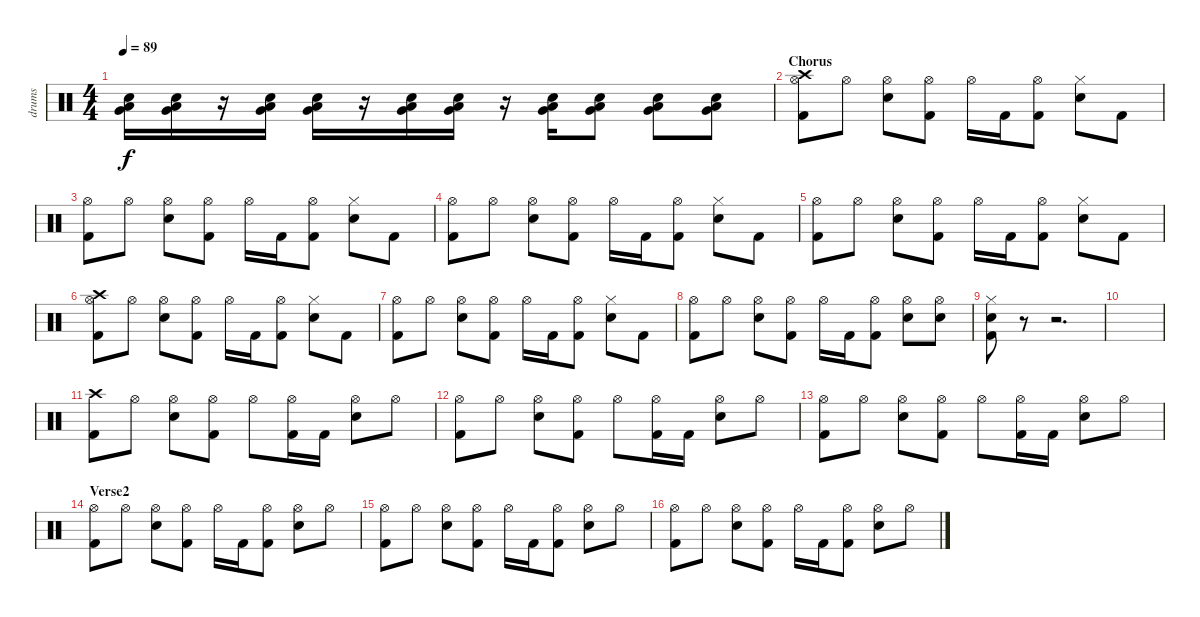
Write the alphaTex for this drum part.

\track ("drums" "drums") {instrument percussion}
\staff {score}
\articulation defaults
\ts (4 4)
\tempo 89
\clef neutral
\ks c
("Low Tom (hit)" "Very Low Tom (hit)" "Electric Snare (hit)").16{dy f} ("Low Tom (hit)" "Very Low Tom (hit)" "Electric Snare (hit)").16 r.16 ("Low Tom (hit)" "Very Low Tom (hit)" "Electric Snare (hit)").16 ("Low Tom (hit)" "Very Low Tom (hit)" "Electric Snare (hit)").16 r.16 ("Low Tom (hit)" "Very Low Tom (hit)" "Electric Snare (hit)").16 ("Low Tom (hit)" "Very Low Tom (hit)" "Electric Snare (hit)").16 r.16 ("Low Tom (hit)" "Very Low Tom (hit)" "Electric Snare (hit)").16 ("Low Tom (hit)" "Very Low Tom (hit)" "Electric Snare (hit)").8 ("Low Tom (hit)" "Very Low Tom (hit)" "Electric Snare (hit)").8 ("Low Tom (hit)" "Very Low Tom (hit)" "Electric Snare (hit)").8 |
\section ("" "Chorus")
("Crash high (hit)" "Hi-Hat (open)" "Kick (hit) 2").8 "Hi-Hat (open)".8 ("Hi-Hat (open)" "Electric Snare (hit)").8 ("Hi-Hat (open)" "Kick (hit) 2").8 "Hi-Hat (open)".16 "Kick (hit) 2".16 ("Hi-Hat (open)" "Kick (hit) 2").8 ("Hi-Hat (closed)" "Electric Snare (hit)").8 "Kick (hit) 2".8 |
("Hi-Hat (open)" "Kick (hit) 2").8 "Hi-Hat (open)".8 ("Hi-Hat (open)" "Electric Snare (hit)").8 ("Hi-Hat (open)" "Kick (hit) 2").8 "Hi-Hat (open)".16 "Kick (hit) 2".16 ("Hi-Hat (open)" "Kick (hit) 2").8 ("Hi-Hat (closed)" "Electric Snare (hit)").8 "Kick (hit) 2".8 |
("Hi-Hat (open)" "Kick (hit) 2").8 "Hi-Hat (open)".8 ("Hi-Hat (open)" "Electric Snare (hit)").8 ("Hi-Hat (open)" "Kick (hit) 2").8 "Hi-Hat (open)".16 "Kick (hit) 2".16 ("Hi-Hat (open)" "Kick (hit) 2").8 ("Hi-Hat (closed)" "Electric Snare (hit)").8 "Kick (hit) 2".8 |
("Hi-Hat (open)" "Kick (hit) 2").8 "Hi-Hat (open)".8 ("Hi-Hat (open)" "Electric Snare (hit)").8 ("Hi-Hat (open)" "Kick (hit) 2").8 "Hi-Hat (open)".16 "Kick (hit) 2".16 ("Hi-Hat (open)" "Kick (hit) 2").8 ("Hi-Hat (closed)" "Electric Snare (hit)").8 "Kick (hit) 2".8 |
("Crash high (hit)" "Hi-Hat (open)" "Kick (hit) 2").8 "Hi-Hat (open)".8 ("Hi-Hat (open)" "Electric Snare (hit)").8 ("Hi-Hat (open)" "Kick (hit) 2").8 "Hi-Hat (open)".16 "Kick (hit) 2".16 ("Hi-Hat (open)" "Kick (hit) 2").8 ("Hi-Hat (closed)" "Electric Snare (hit)").8 "Kick (hit) 2".8 |
("Hi-Hat (open)" "Kick (hit) 2").8 "Hi-Hat (open)".8 ("Hi-Hat (open)" "Electric Snare (hit)").8 ("Hi-Hat (open)" "Kick (hit) 2").8 "Hi-Hat (open)".16 "Kick (hit) 2".16 ("Hi-Hat (open)" "Kick (hit) 2").8 ("Hi-Hat (closed)" "Electric Snare (hit)").8 "Kick (hit) 2".8 |
("Hi-Hat (open)" "Kick (hit) 2").8 "Hi-Hat (open)".8 ("Hi-Hat (open)" "Electric Snare (hit)").8 ("Hi-Hat (open)" "Kick (hit) 2").8 "Hi-Hat (open)".16 "Kick (hit) 2".16 ("Hi-Hat (open)" "Kick (hit) 2").8 ("Hi-Hat (open)" "Electric Snare (hit)").8 ("Hi-Hat (open)" "Electric Snare (hit)").8 |
("Hi-Hat (closed)" "Electric Snare (hit)" "Kick (hit) 2").8 r.8 r.2{d} |
|
("Crash high (hit)" "Kick (hit) 2").8 "Hi-Hat (open)".8 ("Hi-Hat (open)" "Electric Snare (hit)").8 ("Hi-Hat (open)" "Kick (hit) 2").8 "Hi-Hat (open)".8 ("Hi-Hat (open)" "Kick (hit) 2").16 "Kick (hit) 2".16 ("Hi-Hat (open)" "Electric Snare (hit)").8 "Hi-Hat (open)".8 |
("Hi-Hat (open)" "Kick (hit) 2").8 "Hi-Hat (open)".8 ("Hi-Hat (open)" "Electric Snare (hit)").8 ("Hi-Hat (open)" "Kick (hit) 2").8 "Hi-Hat (open)".8 ("Hi-Hat (open)" "Kick (hit) 2").16 "Kick (hit) 2".16 ("Hi-Hat (open)" "Electric Snare (hit)").8 "Hi-Hat (open)".8 |
("Hi-Hat (open)" "Kick (hit) 2").8 "Hi-Hat (open)".8 ("Hi-Hat (open)" "Electric Snare (hit)").8 ("Hi-Hat (open)" "Kick (hit) 2").8 "Hi-Hat (open)".8 ("Hi-Hat (open)" "Kick (hit) 2").16 "Kick (hit) 2".16 ("Hi-Hat (open)" "Electric Snare (hit)").8 "Hi-Hat (open)".8 |
\section ("" "Verse2")
("Hi-Hat (open)" "Kick (hit) 2").8 "Hi-Hat (open)".8 ("Hi-Hat (open)" "Electric Snare (hit)").8 ("Hi-Hat (open)" "Kick (hit) 2").8 "Hi-Hat (open)".16 "Kick (hit) 2".16 ("Hi-Hat (open)" "Kick (hit) 2").8 ("Hi-Hat (open)" "Electric Snare (hit)").8 "Hi-Hat (open)".8 |
("Hi-Hat (open)" "Kick (hit) 2").8 "Hi-Hat (open)".8 ("Hi-Hat (open)" "Electric Snare (hit)").8 ("Hi-Hat (open)" "Kick (hit) 2").8 "Hi-Hat (open)".16 "Kick (hit) 2".16 ("Hi-Hat (open)" "Kick (hit) 2").8 ("Hi-Hat (open)" "Electric Snare (hit)").8 "Hi-Hat (open)".8 |
("Hi-Hat (open)" "Kick (hit) 2").8 "Hi-Hat (open)".8 ("Hi-Hat (open)" "Electric Snare (hit)").8 ("Hi-Hat (open)" "Kick (hit) 2").8 "Hi-Hat (open)".16 "Kick (hit) 2".16 ("Hi-Hat (open)" "Kick (hit) 2").8 ("Hi-Hat (open)" "Electric Snare (hit)").8 "Hi-Hat (open)".8
